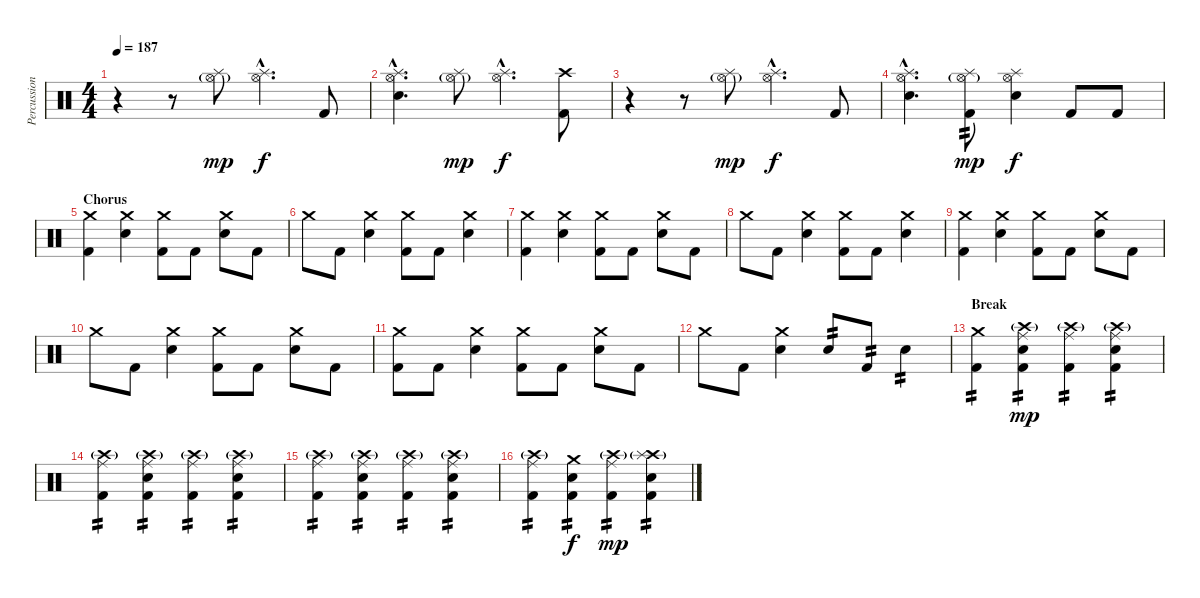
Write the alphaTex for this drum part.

\track ("Percussion" "Percussion") {instrument percussion}
\staff {score}
\articulation defaults
\ts (4 4)
\tempo 187
\clef neutral
\ks c
r.4{dy f} r.8 ("Hi-Hat (open)"{g} "Splash (hit)").8{dy mp} ("Hi-Hat (open)"{hac} "Splash (hit)"{hac}).4{d dy f} "Kick (hit) 2".8 |
("Hi-Hat (open)"{hac} "Splash (hit)"{hac} "Electric Snare (hit)"{hac}).4{d} ("Hi-Hat (open)"{g} "Splash (hit)").8{dy mp} ("Hi-Hat (open)"{hac} "Splash (hit)"{hac}).4{d dy f} ("Crash high (hit)" "Kick (hit) 2").8 |
r.4 r.8 ("Hi-Hat (open)"{g} "Splash (hit)").8{dy mp} ("Hi-Hat (open)"{hac} "Splash (hit)"{hac}).4{d dy f} "Kick (hit) 2".8 |
("Hi-Hat (open)"{hac} "Splash (hit)"{hac} "Electric Snare (hit)"{hac}).4{d} ("Hi-Hat (open)"{g} "Splash (hit)" "Kick (hit) 2").8{tp 2 dy mp} ("Hi-Hat (open)" "Splash (hit)" "Electric Snare (hit)").4{dy f} "Kick (hit) 2".8 "Kick (hit) 2".8 |
\section ("" "Chorus")
("Crash medium (hit)" "Kick (hit) 2").4 ("Crash medium (hit)" "Electric Snare (hit)").4 ("Crash medium (hit)" "Kick (hit) 2").8 "Kick (hit) 2".8 ("Crash medium (hit)" "Electric Snare (hit)").8 "Kick (hit) 2".8 |
"Crash medium (hit)".8 "Kick (hit) 2".8 ("Crash medium (hit)" "Electric Snare (hit)").4 ("Crash medium (hit)" "Kick (hit) 2").8 "Kick (hit) 2".8 ("Crash medium (hit)" "Electric Snare (hit)").4 |
("Crash medium (hit)" "Kick (hit) 2").4 ("Crash medium (hit)" "Electric Snare (hit)").4 ("Crash medium (hit)" "Kick (hit) 2").8 "Kick (hit) 2".8 ("Crash medium (hit)" "Electric Snare (hit)").8 "Kick (hit) 2".8 |
"Crash medium (hit)".8 "Kick (hit) 2".8 ("Crash medium (hit)" "Electric Snare (hit)").4 ("Crash medium (hit)" "Kick (hit) 2").8 "Kick (hit) 2".8 ("Crash medium (hit)" "Electric Snare (hit)").4 |
("Crash medium (hit)" "Kick (hit) 2").4 ("Crash medium (hit)" "Electric Snare (hit)").4 ("Crash medium (hit)" "Kick (hit) 2").8 "Kick (hit) 2".8 ("Crash medium (hit)" "Electric Snare (hit)").8 "Kick (hit) 2".8 |
"Crash medium (hit)".8 "Kick (hit) 2".8 ("Crash medium (hit)" "Electric Snare (hit)").4 ("Crash medium (hit)" "Kick (hit) 2").8 "Kick (hit) 2".8 ("Crash medium (hit)" "Electric Snare (hit)").8 "Kick (hit) 2".8 |
("Crash medium (hit)" "Kick (hit) 2").8 "Kick (hit) 2".8 ("Crash medium (hit)" "Electric Snare (hit)").4 ("Crash medium (hit)" "Kick (hit) 2").8 "Kick (hit) 2".8 ("Crash medium (hit)" "Electric Snare (hit)").8 "Kick (hit) 2".8 |
"Crash medium (hit)".8 "Kick (hit) 2".8 ("Crash medium (hit)" "Electric Snare (hit)").4 "Electric Snare (hit)".8{tp 2} "Kick (hit) 2".8{tp 2} "Electric Snare (hit)".4{tp 2} |
\section ("" "Break")
("Crash medium (hit)" "Kick (hit) 2").4{tp 2} ("Crash high (hit)"{g} "Ride (middle)" "Electric Snare (hit)" "Kick (hit) 2").4{tp 2 dy mp} ("Crash high (hit)"{g} "Ride (middle)" "Kick (hit) 2").4{tp 2} ("Crash high (hit)"{g} "Ride (middle)" "Electric Snare (hit)" "Kick (hit) 2").4{tp 2} |
("Crash high (hit)"{g} "Ride (middle)" "Kick (hit) 2").4{tp 2} ("Crash high (hit)"{g} "Ride (middle)" "Electric Snare (hit)" "Kick (hit) 2").4{tp 2} ("Crash high (hit)"{g} "Ride (middle)" "Kick (hit) 2").4{tp 2} ("Crash high (hit)"{g} "Ride (middle)" "Electric Snare (hit)" "Kick (hit) 2").4{tp 2} |
("Crash high (hit)"{g} "Ride (middle)" "Kick (hit) 2").4{tp 2} ("Crash high (hit)"{g} "Ride (middle)" "Electric Snare (hit)" "Kick (hit) 2").4{tp 2} ("Crash high (hit)"{g} "Ride (middle)" "Kick (hit) 2").4{tp 2} ("Crash high (hit)"{g} "Ride (middle)" "Electric Snare (hit)" "Kick (hit) 2").4{tp 2} |
("Crash high (hit)"{g} "Ride (middle)" "Kick (hit) 2").4{tp 2} ("Crash medium (hit)" "Electric Snare (hit)" "Kick (hit) 2").4{tp 2 dy f} ("Crash high (hit)"{g} "Ride (middle)" "Kick (hit) 2").4{tp 2 dy mp} ("Crash high (hit)"{g} "Splash (hit)" "Electric Snare (hit)" "Kick (hit) 2").4{tp 2}
